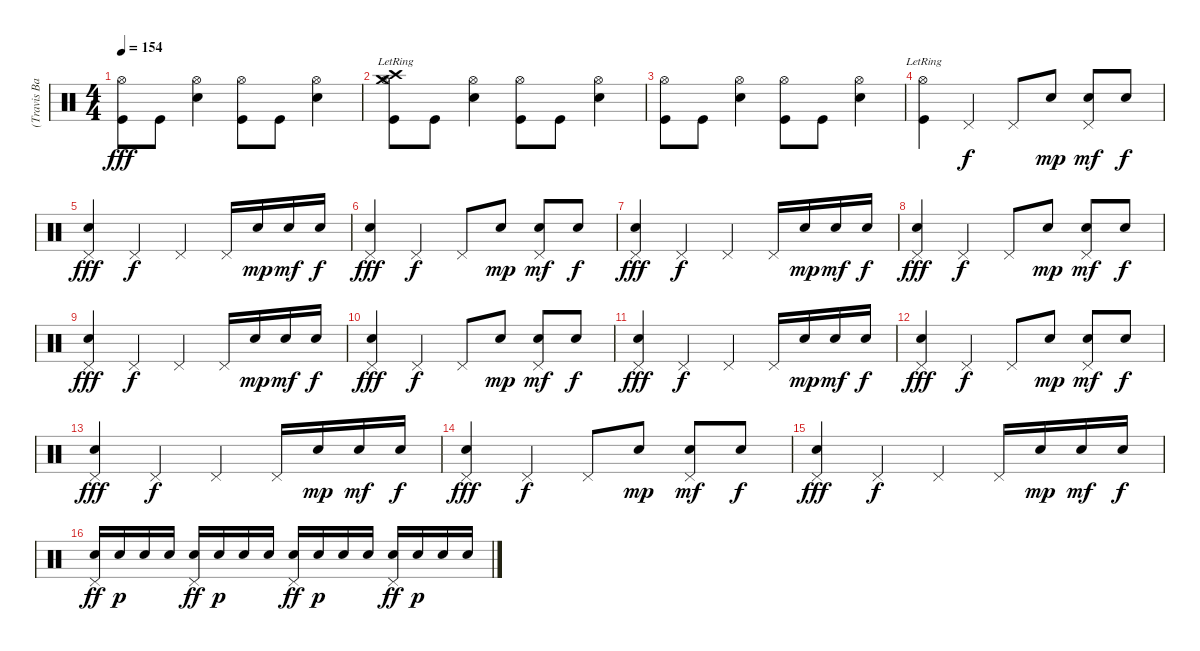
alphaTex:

\track ("(Travis Barker) Drums" "(Travis Ba") {instrument percussion}
\staff {score}
\articulation defaults
\ts (4 4)
\tempo 154
\clef neutral
\ks c
("Hi-Hat (open)" "Kick (hit)").8{dy fff} "Kick (hit)".8 ("Hi-Hat (open)" "Snare (hit) 2").4 ("Hi-Hat (open)" "Kick (hit)").8 "Kick (hit)".8 ("Hi-Hat (open)" "Snare (hit) 2").4 |
("Crash high (hit)"{lr} "Hi-Hat (open)" "Crash medium (hit)"{lr} "Kick (hit)").8 "Kick (hit)".8 ("Hi-Hat (open)" "Snare (hit) 2").4 ("Hi-Hat (open)" "Kick (hit)").8 "Kick (hit)".8 ("Hi-Hat (open)" "Snare (hit) 2").4 |
("Hi-Hat (open)" "Kick (hit)").8 "Kick (hit)".8 ("Hi-Hat (open)" "Snare (hit) 2").4 ("Hi-Hat (open)" "Kick (hit)").8 "Kick (hit)".8 ("Hi-Hat (open)" "Snare (hit) 2").4 |
("Hi-Hat (open)"{lr} "Kick (hit)").4 "Pedal Hi-Hat (hit)".4{dy f} "Pedal Hi-Hat (hit)".8 "Snare (hit) 2".8{dy mp} ("Pedal Hi-Hat (hit)" "Snare (hit) 2").8{dy mf} "Snare (hit) 2".8{dy f} |
("Pedal Hi-Hat (hit)" "Snare (hit) 2").4{dy fff} "Pedal Hi-Hat (hit)".4{dy f} "Pedal Hi-Hat (hit)".4 "Pedal Hi-Hat (hit)".16 "Snare (hit) 2".16{dy mp} "Snare (hit) 2".16{dy mf} "Snare (hit) 2".16{dy f} |
("Pedal Hi-Hat (hit)" "Snare (hit) 2").4{dy fff} "Pedal Hi-Hat (hit)".4{dy f} "Pedal Hi-Hat (hit)".8 "Snare (hit) 2".8{dy mp} ("Pedal Hi-Hat (hit)" "Snare (hit) 2").8{dy mf} "Snare (hit) 2".8{dy f} |
("Pedal Hi-Hat (hit)" "Snare (hit) 2").4{dy fff} "Pedal Hi-Hat (hit)".4{dy f} "Pedal Hi-Hat (hit)".4 "Pedal Hi-Hat (hit)".16 "Snare (hit) 2".16{dy mp} "Snare (hit) 2".16{dy mf} "Snare (hit) 2".16{dy f} |
("Pedal Hi-Hat (hit)" "Snare (hit) 2").4{dy fff} "Pedal Hi-Hat (hit)".4{dy f} "Pedal Hi-Hat (hit)".8 "Snare (hit) 2".8{dy mp} ("Pedal Hi-Hat (hit)" "Snare (hit) 2").8{dy mf} "Snare (hit) 2".8{dy f} |
("Pedal Hi-Hat (hit)" "Snare (hit) 2").4{dy fff} "Pedal Hi-Hat (hit)".4{dy f} "Pedal Hi-Hat (hit)".4 "Pedal Hi-Hat (hit)".16 "Snare (hit) 2".16{dy mp} "Snare (hit) 2".16{dy mf} "Snare (hit) 2".16{dy f} |
("Pedal Hi-Hat (hit)" "Snare (hit) 2").4{dy fff} "Pedal Hi-Hat (hit)".4{dy f} "Pedal Hi-Hat (hit)".8 "Snare (hit) 2".8{dy mp} ("Pedal Hi-Hat (hit)" "Snare (hit) 2").8{dy mf} "Snare (hit) 2".8{dy f} |
("Pedal Hi-Hat (hit)" "Snare (hit) 2").4{dy fff} "Pedal Hi-Hat (hit)".4{dy f} "Pedal Hi-Hat (hit)".4 "Pedal Hi-Hat (hit)".16 "Snare (hit) 2".16{dy mp} "Snare (hit) 2".16{dy mf} "Snare (hit) 2".16{dy f} |
("Pedal Hi-Hat (hit)" "Snare (hit) 2").4{dy fff} "Pedal Hi-Hat (hit)".4{dy f} "Pedal Hi-Hat (hit)".8 "Snare (hit) 2".8{dy mp} ("Pedal Hi-Hat (hit)" "Snare (hit) 2").8{dy mf} "Snare (hit) 2".8{dy f} |
("Pedal Hi-Hat (hit)" "Snare (hit) 2").4{dy fff} "Pedal Hi-Hat (hit)".4{dy f} "Pedal Hi-Hat (hit)".4 "Pedal Hi-Hat (hit)".16 "Snare (hit) 2".16{dy mp} "Snare (hit) 2".16{dy mf} "Snare (hit) 2".16{dy f} |
("Pedal Hi-Hat (hit)" "Snare (hit) 2").4{dy fff} "Pedal Hi-Hat (hit)".4{dy f} "Pedal Hi-Hat (hit)".8 "Snare (hit) 2".8{dy mp} ("Pedal Hi-Hat (hit)" "Snare (hit) 2").8{dy mf} "Snare (hit) 2".8{dy f} |
("Pedal Hi-Hat (hit)" "Snare (hit) 2").4{dy fff} "Pedal Hi-Hat (hit)".4{dy f} "Pedal Hi-Hat (hit)".4 "Pedal Hi-Hat (hit)".16 "Snare (hit) 2".16{dy mp} "Snare (hit) 2".16{dy mf} "Snare (hit) 2".16{dy f} |
("Pedal Hi-Hat (hit)" "Snare (hit) 2").16{dy ff} "Snare (hit) 2".16{dy p} "Snare (hit) 2".16 "Snare (hit) 2".16 ("Pedal Hi-Hat (hit)" "Snare (hit) 2").16{dy ff} "Snare (hit) 2".16{dy p} "Snare (hit) 2".16 "Snare (hit) 2".16 ("Pedal Hi-Hat (hit)" "Snare (hit) 2").16{dy ff} "Snare (hit) 2".16{dy p} "Snare (hit) 2".16 "Snare (hit) 2".16 ("Pedal Hi-Hat (hit)" "Snare (hit) 2").16{dy ff} "Snare (hit) 2".16{dy p} "Snare (hit) 2".16 "Snare (hit) 2".16
